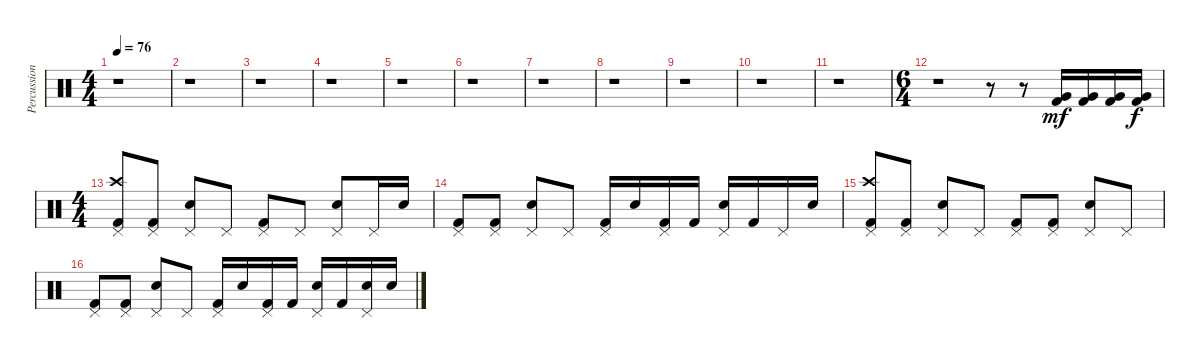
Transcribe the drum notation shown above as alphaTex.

\track ("Percussion" "Percussion") {instrument percussion}
\staff {score}
\articulation defaults
\ts (4 4)
\tempo 76
\clef neutral
\ks c
r.1{dy mf} |
r.1 |
r.1 |
r.1 |
r.1 |
r.1 |
r.1 |
r.1 |
r.1 |
r.1 |
r.1 |
\ts (6 4)
r.1 r.8 r.8 ("Very Low Tom (hit)" "Kick (hit) 2").16 ("Very Low Tom (hit)" "Kick (hit) 2").16 ("Very Low Tom (hit)" "Kick (hit) 2").16 ("Very Low Tom (hit)" "Kick (hit) 2").16{dy f} |
\ts (4 4)
("Crash high (hit)" "Pedal Hi-Hat (hit)" "Kick (hit) 2").8 ("Pedal Hi-Hat (hit)" "Kick (hit) 2").8 ("Pedal Hi-Hat (hit)" "Snare (hit) 2").8 "Pedal Hi-Hat (hit)".8 ("Pedal Hi-Hat (hit)" "Kick (hit) 2").8 "Pedal Hi-Hat (hit)".8 ("Pedal Hi-Hat (hit)" "Snare (hit) 2").8 "Pedal Hi-Hat (hit)".16 "Snare (hit) 2".16 |
("Pedal Hi-Hat (hit)" "Kick (hit) 2").8 ("Pedal Hi-Hat (hit)" "Kick (hit) 2").8 ("Pedal Hi-Hat (hit)" "Snare (hit) 2").8 "Pedal Hi-Hat (hit)".8 ("Pedal Hi-Hat (hit)" "Kick (hit) 2").16 "Snare (hit) 2".16 ("Pedal Hi-Hat (hit)" "Kick (hit) 2").16 "Kick (hit) 2".16 ("Pedal Hi-Hat (hit)" "Snare (hit) 2").16 "Kick (hit) 2".16 "Pedal Hi-Hat (hit)".16 "Snare (hit) 2".16 |
("Crash high (hit)" "Pedal Hi-Hat (hit)" "Kick (hit) 2").8 ("Pedal Hi-Hat (hit)" "Kick (hit) 2").8 ("Pedal Hi-Hat (hit)" "Snare (hit) 2").8 "Pedal Hi-Hat (hit)".8 ("Pedal Hi-Hat (hit)" "Kick (hit) 2").8 ("Pedal Hi-Hat (hit)" "Kick (hit) 2").8 ("Pedal Hi-Hat (hit)" "Snare (hit) 2").8 "Pedal Hi-Hat (hit)".8 |
("Pedal Hi-Hat (hit)" "Kick (hit) 2").8 ("Pedal Hi-Hat (hit)" "Kick (hit) 2").8 ("Pedal Hi-Hat (hit)" "Snare (hit) 2").8 "Pedal Hi-Hat (hit)".8 ("Pedal Hi-Hat (hit)" "Kick (hit) 2").16 "Snare (hit) 2".16 ("Pedal Hi-Hat (hit)" "Kick (hit) 2").16 "Kick (hit) 2".16 ("Pedal Hi-Hat (hit)" "Snare (hit) 2").16 "Kick (hit) 2".16 ("Pedal Hi-Hat (hit)" "Snare (hit) 2").16 "Snare (hit) 2".16
